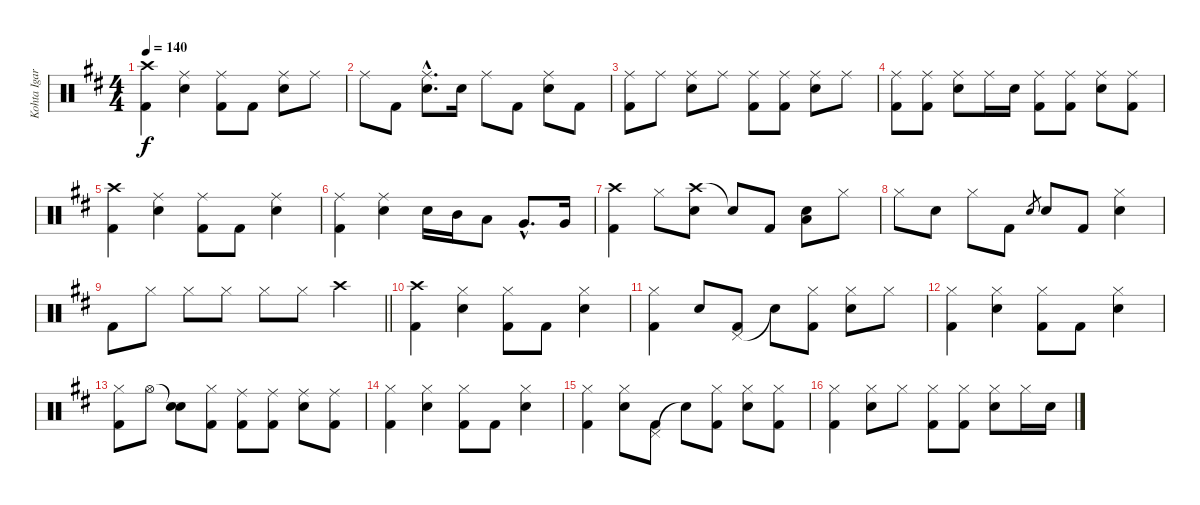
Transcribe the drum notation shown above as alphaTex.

\track ("Kohta Igarashi" "Kohta Igar") {instrument percussion}
\staff {score}
\articulation defaults
\ts (4 4)
\tempo 140
\clef neutral
\ks d
("Crash high (hit)" "Kick (hit) 2").4{dy f} ("Ride (middle)" "Electric Snare (hit)").4 ("Ride (middle)" "Kick (hit) 2").8 "Kick (hit) 2".8 ("Ride (middle)" "Electric Snare (hit)").8 "Ride (middle)".8 |
"Ride (middle)".8 "Kick (hit) 2".8 ("Ride (middle)"{hac} "Electric Snare (hit)"{hac}).8{d} "Electric Snare (hit)".16 "Ride (middle)".8 "Kick (hit) 2".8 ("Ride (middle)" "Electric Snare (hit)").8 "Kick (hit) 2".8 |
("Ride (middle)" "Kick (hit) 2").8 "Ride (middle)".8 ("Ride (middle)" "Electric Snare (hit)").8 "Ride (middle)".8 ("Ride (middle)" "Kick (hit) 2").8 ("Ride (middle)" "Kick (hit) 2").8 ("Ride (middle)" "Electric Snare (hit)").8 "Ride (middle)".8 |
("Ride (middle)" "Kick (hit) 2").8 ("Ride (middle)" "Kick (hit) 2").8 ("Ride (middle)" "Electric Snare (hit)").8 "Ride (middle)".16 "Electric Snare (hit)".16 ("Ride (middle)" "Kick (hit) 2").8 ("Ride (middle)" "Kick (hit) 2").8 ("Ride (middle)" "Electric Snare (hit)").8 ("Ride (middle)" "Kick (hit) 2").8 |
("Crash high (hit)" "Kick (hit) 2").4 ("Ride (middle)" "Electric Snare (hit)").4 ("Ride (middle)" "Kick (hit) 2").8 "Kick (hit) 2".8 ("Ride (middle)" "Electric Snare (hit)").4 |
("Ride (middle)" "Kick (hit) 2").4 ("Ride (middle)" "Electric Snare (hit)").4 "Electric Snare (hit)".16 "Mid Tom (hit)".16 "Low Tom (hit)".8 "Very Low Tom (hit)"{hac}.8{d} "Very Low Tom (hit)".16 |
("Crash high (hit)" "Kick (hit) 2").4 "Hi-Hat (closed)".8 ("Crash high (hit)" "Electric Snare (hit)").8 "Snare (hit)"{t}.8 "Kick (hit) 2".8 ("Electric Snare (hit)" "Low Floor Tom (hit)").8 "Hi-Hat (closed)".8 |
"Hi-Hat (closed)".8 "Electric Snare (hit)".8 "Hi-Hat (closed)".8 "Kick (hit) 2".8 "Electric Snare (hit)".8{gr} "Electric Snare (hit)".8 "Kick (hit) 2".8 ("Hi-Hat (closed)" "Electric Snare (hit)").4 |
\barLineRight lightlight "Kick (hit) 2".8 "Hi-Hat (closed)".8 "Hi-Hat (closed)".8 "Hi-Hat (closed)".8 "Hi-Hat (closed)".8 "Hi-Hat (closed)".8 "Crash high (hit)".4
|
("Crash high (hit)" "Kick (hit) 2").4 ("Hi-Hat (closed)" "Electric Snare (hit)").4 ("Hi-Hat (closed)" "Kick (hit) 2").8 "Kick (hit) 2".8 ("Hi-Hat (closed)" "Electric Snare (hit)").4 |
("Hi-Hat (closed)" "Kick (hit) 2").4 "Electric Snare (hit)".8 ("Pedal Hi-Hat (hit)" "Kick (hit) 2").8 "Snare (hit)"{t}.8 ("Hi-Hat (closed)" "Kick (hit) 2").8 ("Hi-Hat (closed)" "Electric Snare (hit)").8 "Hi-Hat (closed)".8 |
("Hi-Hat (closed)" "Kick (hit) 2").4 ("Hi-Hat (closed)" "Electric Snare (hit)").4 ("Hi-Hat (closed)" "Kick (hit) 2").8 "Kick (hit) 2".8 ("Hi-Hat (closed)" "Electric Snare (hit)").4 |
("Hi-Hat (closed)" "Kick (hit) 2").8 "Hi-Hat (open)".8 ("Snare (hit)"{t} "Electric Snare (hit)").8 ("Hi-Hat (closed)" "Kick (hit) 2").8 ("Ride (middle)" "Kick (hit) 2").8 ("Ride (middle)" "Kick (hit) 2").8 ("Ride (middle)" "Electric Snare (hit)").8 ("Ride (middle)" "Kick (hit) 2").8 |
("Hi-Hat (closed)" "Kick (hit) 2").4 ("Hi-Hat (closed)" "Electric Snare (hit)").4 ("Hi-Hat (closed)" "Kick (hit) 2").8 "Kick (hit) 2".8 ("Hi-Hat (closed)" "Electric Snare (hit)").4 |
("Hi-Hat (closed)" "Kick (hit) 2").4 ("Hi-Hat (closed)" "Electric Snare (hit)").8 ("Pedal Hi-Hat (hit)" "Kick (hit) 2").8 "Snare (hit)"{t}.8 ("Hi-Hat (closed)" "Kick (hit) 2").8 ("Hi-Hat (closed)" "Electric Snare (hit)").8 ("Hi-Hat (closed)" "Kick (hit) 2").8 |
("Hi-Hat (closed)" "Kick (hit) 2").4 ("Hi-Hat (closed)" "Electric Snare (hit)").8 "Hi-Hat (closed)".8 ("Hi-Hat (closed)" "Kick (hit) 2").8 ("Hi-Hat (closed)" "Kick (hit) 2").8 ("Hi-Hat (closed)" "Electric Snare (hit)").8 "Hi-Hat (closed)".16 "Electric Snare (hit)".16
